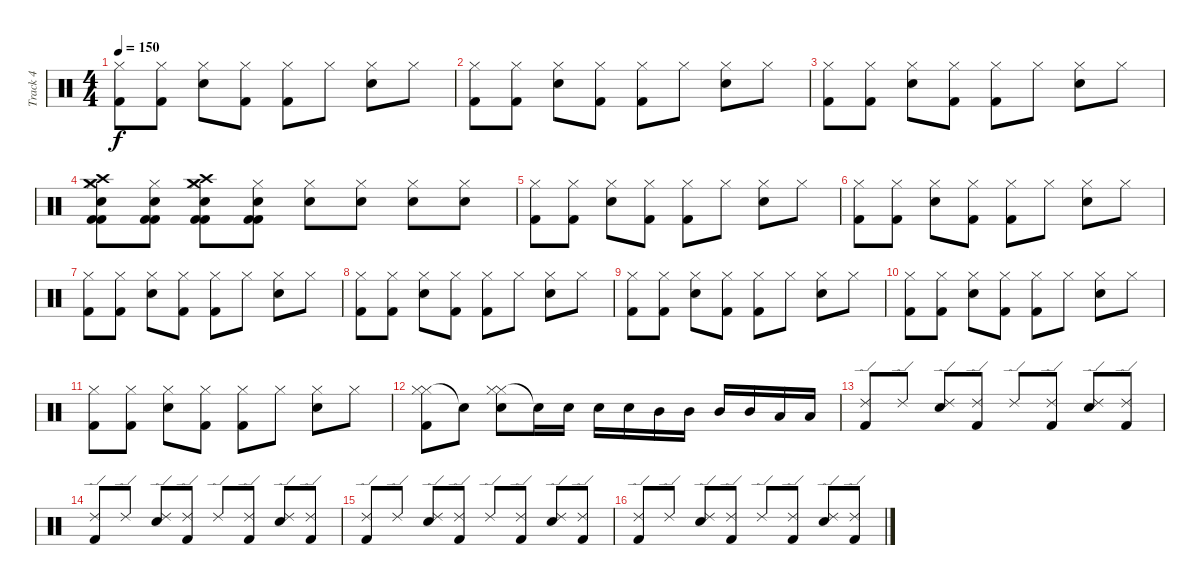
\track ("Track 4" "Track 4") {instrument percussion}
\staff {score}
\articulation defaults
\ts (4 4)
\tempo 150
\clef neutral
\ks c
("Hi-Hat (closed)" "Kick (hit) 2").8{dy f} ("Hi-Hat (closed)" "Kick (hit) 2").8 ("Hi-Hat (closed)" "Snare (hit) 2").8 ("Hi-Hat (closed)" "Kick (hit) 2").8 ("Hi-Hat (closed)" "Kick (hit) 2").8 "Hi-Hat (closed)".8 ("Hi-Hat (closed)" "Snare (hit) 2").8 "Hi-Hat (closed)".8 |
("Hi-Hat (closed)" "Kick (hit) 2").8 ("Hi-Hat (closed)" "Kick (hit) 2").8 ("Hi-Hat (closed)" "Snare (hit) 2").8 ("Hi-Hat (closed)" "Kick (hit) 2").8 ("Hi-Hat (closed)" "Kick (hit) 2").8 "Hi-Hat (closed)".8 ("Hi-Hat (closed)" "Snare (hit) 2").8 "Hi-Hat (closed)".8 |
("Hi-Hat (closed)" "Kick (hit) 2").8 ("Hi-Hat (closed)" "Kick (hit) 2").8 ("Hi-Hat (closed)" "Snare (hit) 2").8 ("Hi-Hat (closed)" "Kick (hit) 2").8 ("Hi-Hat (closed)" "Kick (hit) 2").8 "Hi-Hat (closed)".8 ("Hi-Hat (closed)" "Snare (hit) 2").8 "Hi-Hat (closed)".8 |
("Crash high (hit)" "Hi-Hat (closed)" "Snare (hit) 2" "Crash medium (hit)" "Kick (hit) 2" "Kick (hit) 2").8 ("Hi-Hat (closed)" "Snare (hit) 2" "Kick (hit) 2" "Kick (hit) 2").8 ("Crash high (hit)" "Hi-Hat (closed)" "Snare (hit) 2" "Crash medium (hit)" "Kick (hit) 2" "Kick (hit) 2").8 ("Hi-Hat (closed)" "Snare (hit) 2" "Kick (hit) 2" "Kick (hit) 2").8 ("Hi-Hat (closed)" "Snare (hit) 2").8 ("Hi-Hat (closed)" "Snare (hit) 2").8 ("Hi-Hat (closed)" "Snare (hit) 2").8 ("Hi-Hat (closed)" "Snare (hit) 2").8 |
("Hi-Hat (closed)" "Kick (hit) 2").8 ("Hi-Hat (closed)" "Kick (hit) 2").8 ("Hi-Hat (closed)" "Snare (hit) 2").8 ("Hi-Hat (closed)" "Kick (hit) 2").8 ("Hi-Hat (closed)" "Kick (hit) 2").8 "Hi-Hat (closed)".8 ("Hi-Hat (closed)" "Snare (hit) 2").8 "Hi-Hat (closed)".8 |
("Hi-Hat (closed)" "Kick (hit) 2").8 ("Hi-Hat (closed)" "Kick (hit) 2").8 ("Hi-Hat (closed)" "Snare (hit) 2").8 ("Hi-Hat (closed)" "Kick (hit) 2").8 ("Hi-Hat (closed)" "Kick (hit) 2").8 "Hi-Hat (closed)".8 ("Hi-Hat (closed)" "Snare (hit) 2").8 "Hi-Hat (closed)".8 |
("Hi-Hat (closed)" "Kick (hit) 2").8 ("Hi-Hat (closed)" "Kick (hit) 2").8 ("Hi-Hat (closed)" "Snare (hit) 2").8 ("Hi-Hat (closed)" "Kick (hit) 2").8 ("Hi-Hat (closed)" "Kick (hit) 2").8 "Hi-Hat (closed)".8 ("Hi-Hat (closed)" "Snare (hit) 2").8 "Hi-Hat (closed)".8 |
("Hi-Hat (closed)" "Kick (hit) 2").8 ("Hi-Hat (closed)" "Kick (hit) 2").8 ("Hi-Hat (closed)" "Snare (hit) 2").8 ("Hi-Hat (closed)" "Kick (hit) 2").8 ("Hi-Hat (closed)" "Kick (hit) 2").8 "Hi-Hat (closed)".8 ("Hi-Hat (closed)" "Snare (hit) 2").8 "Hi-Hat (closed)".8 |
("Hi-Hat (closed)" "Kick (hit) 2").8 ("Hi-Hat (closed)" "Kick (hit) 2").8 ("Hi-Hat (closed)" "Snare (hit) 2").8 ("Hi-Hat (closed)" "Kick (hit) 2").8 ("Hi-Hat (closed)" "Kick (hit) 2").8 "Hi-Hat (closed)".8 ("Hi-Hat (closed)" "Snare (hit) 2").8 "Hi-Hat (closed)".8 |
("Hi-Hat (closed)" "Kick (hit) 2").8 ("Hi-Hat (closed)" "Kick (hit) 2").8 ("Hi-Hat (closed)" "Snare (hit) 2").8 ("Hi-Hat (closed)" "Kick (hit) 2").8 ("Hi-Hat (closed)" "Kick (hit) 2").8 "Hi-Hat (closed)".8 ("Hi-Hat (closed)" "Snare (hit) 2").8 "Hi-Hat (closed)".8 |
("Hi-Hat (closed)" "Kick (hit) 2").8 ("Hi-Hat (closed)" "Kick (hit) 2").8 ("Hi-Hat (closed)" "Snare (hit) 2").8 ("Hi-Hat (closed)" "Kick (hit) 2").8 ("Hi-Hat (closed)" "Kick (hit) 2").8 "Hi-Hat (closed)".8 ("Hi-Hat (closed)" "Snare (hit) 2").8 "Hi-Hat (closed)".8 |
("Hi-Hat (closed)" "Hi-Hat (closed)" "Kick (hit) 2").8 "Snare (hit)"{t}.8 ("Hi-Hat (closed)" "Snare (hit) 2" "Hi-Hat (closed)").8 "Snare (hit)"{t}.16 "Snare (hit) 2".16 "Snare (hit) 2".16 "Snare (hit) 2".16 "Mid Tom (hit)".16 "Mid Tom (hit)".16 "Mid Tom (hit)".16 "Mid Tom (hit)".16 "Low Floor Tom (hit)".16 "Low Floor Tom (hit)".16 |
("Ride (edge) 2" "Kick (hit) 2").8 "Ride (edge) 2".8 ("Ride (edge) 2" "Snare (hit) 2").8 ("Ride (edge) 2" "Kick (hit) 2").8 "Ride (edge) 2".8 ("Ride (edge) 2" "Kick (hit) 2").8 ("Ride (edge) 2" "Snare (hit) 2").8 ("Ride (edge) 2" "Kick (hit) 2").8 |
("Ride (edge) 2" "Kick (hit) 2").8 "Ride (edge) 2".8 ("Ride (edge) 2" "Snare (hit) 2").8 ("Ride (edge) 2" "Kick (hit) 2").8 "Ride (edge) 2".8 ("Ride (edge) 2" "Kick (hit) 2").8 ("Ride (edge) 2" "Snare (hit) 2").8 ("Ride (edge) 2" "Kick (hit) 2").8 |
("Ride (edge) 2" "Kick (hit) 2").8 "Ride (edge) 2".8 ("Ride (edge) 2" "Snare (hit) 2").8 ("Ride (edge) 2" "Kick (hit) 2").8 "Ride (edge) 2".8 ("Ride (edge) 2" "Kick (hit) 2").8 ("Ride (edge) 2" "Snare (hit) 2").8 ("Ride (edge) 2" "Kick (hit) 2").8 |
("Ride (edge) 2" "Kick (hit) 2").8 "Ride (edge) 2".8 ("Ride (edge) 2" "Snare (hit) 2").8 ("Ride (edge) 2" "Kick (hit) 2").8 "Ride (edge) 2".8 ("Ride (edge) 2" "Kick (hit) 2").8 ("Ride (edge) 2" "Snare (hit) 2").8 ("Ride (edge) 2" "Kick (hit) 2").8
